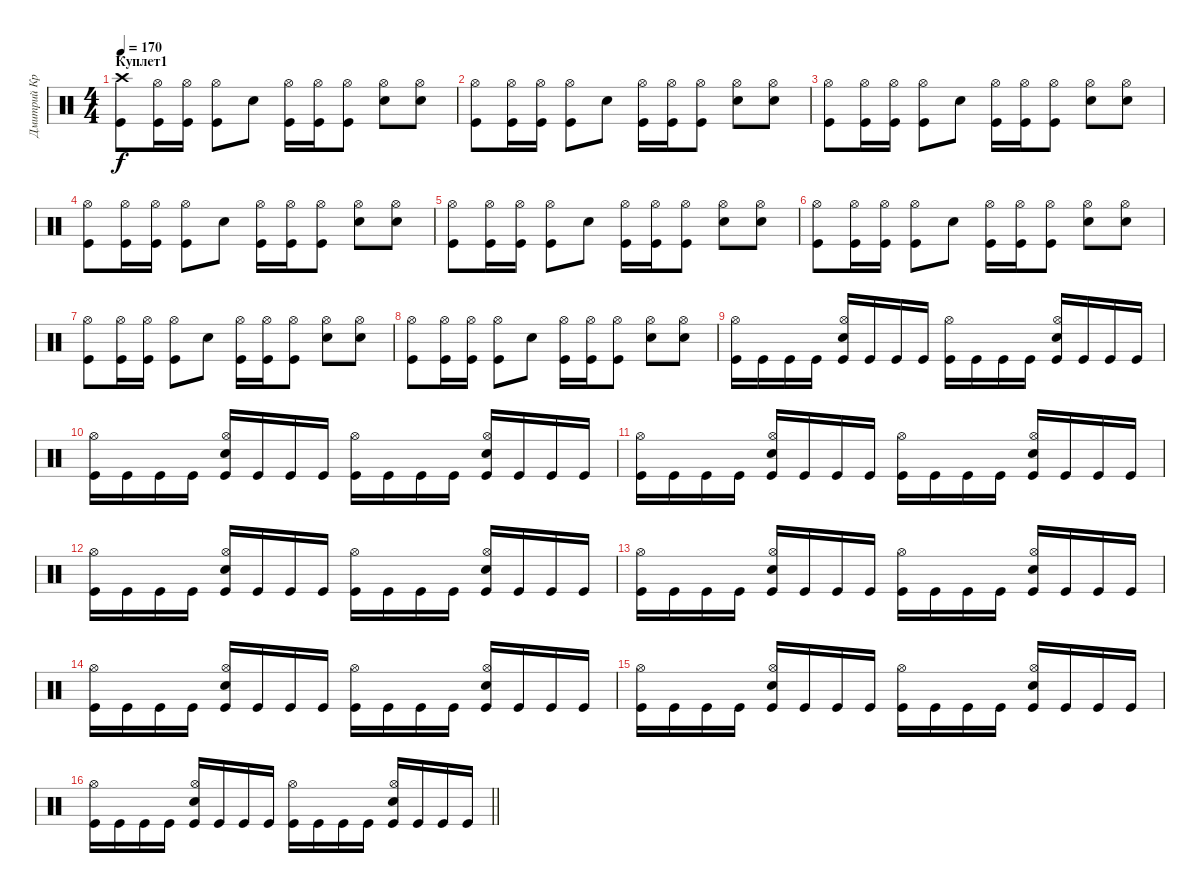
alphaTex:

\track ("Дмитрий Кривенков" "Дмитрий Кр") {instrument percussion}
\staff {score}
\articulation defaults
\ts (4 4)
\section ("" "Куплет1")
\tempo 170
\clef neutral
\ks c
("Crash high (hit)" "Kick (hit)").8{dy f} ("Hi-Hat (open)" "Kick (hit)").16 ("Hi-Hat (open)" "Kick (hit)").16 ("Hi-Hat (open)" "Kick (hit)").8 "Snare (hit) 2".8 ("Hi-Hat (open)" "Kick (hit)").16 ("Hi-Hat (open)" "Kick (hit)").16 ("Hi-Hat (open)" "Kick (hit)").8 ("Hi-Hat (open)" "Snare (hit) 2").8 ("Hi-Hat (open)" "Snare (hit) 2").8 |
("Hi-Hat (open)" "Kick (hit)").8 ("Hi-Hat (open)" "Kick (hit)").16 ("Hi-Hat (open)" "Kick (hit)").16 ("Hi-Hat (open)" "Kick (hit)").8 "Snare (hit) 2".8 ("Hi-Hat (open)" "Kick (hit)").16 ("Hi-Hat (open)" "Kick (hit)").16 ("Hi-Hat (open)" "Kick (hit)").8 ("Hi-Hat (open)" "Snare (hit) 2").8 ("Hi-Hat (open)" "Snare (hit) 2").8 |
("Hi-Hat (open)" "Kick (hit)").8 ("Hi-Hat (open)" "Kick (hit)").16 ("Hi-Hat (open)" "Kick (hit)").16 ("Hi-Hat (open)" "Kick (hit)").8 "Snare (hit) 2".8 ("Hi-Hat (open)" "Kick (hit)").16 ("Hi-Hat (open)" "Kick (hit)").16 ("Hi-Hat (open)" "Kick (hit)").8 ("Hi-Hat (open)" "Snare (hit) 2").8 ("Hi-Hat (open)" "Snare (hit) 2").8 |
("Hi-Hat (open)" "Kick (hit)").8 ("Hi-Hat (open)" "Kick (hit)").16 ("Hi-Hat (open)" "Kick (hit)").16 ("Hi-Hat (open)" "Kick (hit)").8 "Snare (hit) 2".8 ("Hi-Hat (open)" "Kick (hit)").16 ("Hi-Hat (open)" "Kick (hit)").16 ("Hi-Hat (open)" "Kick (hit)").8 ("Hi-Hat (open)" "Snare (hit) 2").8 ("Hi-Hat (open)" "Snare (hit) 2").8 |
("Hi-Hat (open)" "Kick (hit)").8 ("Hi-Hat (open)" "Kick (hit)").16 ("Hi-Hat (open)" "Kick (hit)").16 ("Hi-Hat (open)" "Kick (hit)").8 "Snare (hit) 2".8 ("Hi-Hat (open)" "Kick (hit)").16 ("Hi-Hat (open)" "Kick (hit)").16 ("Hi-Hat (open)" "Kick (hit)").8 ("Hi-Hat (open)" "Snare (hit) 2").8 ("Hi-Hat (open)" "Snare (hit) 2").8 |
("Hi-Hat (open)" "Kick (hit)").8 ("Hi-Hat (open)" "Kick (hit)").16 ("Hi-Hat (open)" "Kick (hit)").16 ("Hi-Hat (open)" "Kick (hit)").8 "Snare (hit) 2".8 ("Hi-Hat (open)" "Kick (hit)").16 ("Hi-Hat (open)" "Kick (hit)").16 ("Hi-Hat (open)" "Kick (hit)").8 ("Hi-Hat (open)" "Snare (hit) 2").8 ("Hi-Hat (open)" "Snare (hit) 2").8 |
("Hi-Hat (open)" "Kick (hit)").8 ("Hi-Hat (open)" "Kick (hit)").16 ("Hi-Hat (open)" "Kick (hit)").16 ("Hi-Hat (open)" "Kick (hit)").8 "Snare (hit) 2".8 ("Hi-Hat (open)" "Kick (hit)").16 ("Hi-Hat (open)" "Kick (hit)").16 ("Hi-Hat (open)" "Kick (hit)").8 ("Hi-Hat (open)" "Snare (hit) 2").8 ("Hi-Hat (open)" "Snare (hit) 2").8 |
("Hi-Hat (open)" "Kick (hit)").8 ("Hi-Hat (open)" "Kick (hit)").16 ("Hi-Hat (open)" "Kick (hit)").16 ("Hi-Hat (open)" "Kick (hit)").8 "Snare (hit) 2".8 ("Hi-Hat (open)" "Kick (hit)").16 ("Hi-Hat (open)" "Kick (hit)").16 ("Hi-Hat (open)" "Kick (hit)").8 ("Hi-Hat (open)" "Snare (hit) 2").8 ("Hi-Hat (open)" "Snare (hit) 2").8 |
("Hi-Hat (open)" "Kick (hit)").16 "Kick (hit)".16 "Kick (hit)".16 "Kick (hit)".16 ("Hi-Hat (open)" "Snare (hit) 2" "Kick (hit)").16 "Kick (hit)".16 "Kick (hit)".16 "Kick (hit)".16 ("Hi-Hat (open)" "Kick (hit)").16 "Kick (hit)".16 "Kick (hit)".16 "Kick (hit)".16 ("Hi-Hat (open)" "Snare (hit) 2" "Kick (hit)").16 "Kick (hit)".16 "Kick (hit)".16 "Kick (hit)".16 |
("Hi-Hat (open)" "Kick (hit)").16 "Kick (hit)".16 "Kick (hit)".16 "Kick (hit)".16 ("Hi-Hat (open)" "Snare (hit) 2" "Kick (hit)").16 "Kick (hit)".16 "Kick (hit)".16 "Kick (hit)".16 ("Hi-Hat (open)" "Kick (hit)").16 "Kick (hit)".16 "Kick (hit)".16 "Kick (hit)".16 ("Hi-Hat (open)" "Snare (hit) 2" "Kick (hit)").16 "Kick (hit)".16 "Kick (hit)".16 "Kick (hit)".16 |
("Hi-Hat (open)" "Kick (hit)").16 "Kick (hit)".16 "Kick (hit)".16 "Kick (hit)".16 ("Hi-Hat (open)" "Snare (hit) 2" "Kick (hit)").16 "Kick (hit)".16 "Kick (hit)".16 "Kick (hit)".16 ("Hi-Hat (open)" "Kick (hit)").16 "Kick (hit)".16 "Kick (hit)".16 "Kick (hit)".16 ("Hi-Hat (open)" "Snare (hit) 2" "Kick (hit)").16 "Kick (hit)".16 "Kick (hit)".16 "Kick (hit)".16 |
("Hi-Hat (open)" "Kick (hit)").16 "Kick (hit)".16 "Kick (hit)".16 "Kick (hit)".16 ("Hi-Hat (open)" "Snare (hit) 2" "Kick (hit)").16 "Kick (hit)".16 "Kick (hit)".16 "Kick (hit)".16 ("Hi-Hat (open)" "Kick (hit)").16 "Kick (hit)".16 "Kick (hit)".16 "Kick (hit)".16 ("Hi-Hat (open)" "Snare (hit) 2" "Kick (hit)").16 "Kick (hit)".16 "Kick (hit)".16 "Kick (hit)".16 |
("Hi-Hat (open)" "Kick (hit)").16 "Kick (hit)".16 "Kick (hit)".16 "Kick (hit)".16 ("Hi-Hat (open)" "Snare (hit) 2" "Kick (hit)").16 "Kick (hit)".16 "Kick (hit)".16 "Kick (hit)".16 ("Hi-Hat (open)" "Kick (hit)").16 "Kick (hit)".16 "Kick (hit)".16 "Kick (hit)".16 ("Hi-Hat (open)" "Snare (hit) 2" "Kick (hit)").16 "Kick (hit)".16 "Kick (hit)".16 "Kick (hit)".16 |
("Hi-Hat (open)" "Kick (hit)").16 "Kick (hit)".16 "Kick (hit)".16 "Kick (hit)".16 ("Hi-Hat (open)" "Snare (hit) 2" "Kick (hit)").16 "Kick (hit)".16 "Kick (hit)".16 "Kick (hit)".16 ("Hi-Hat (open)" "Kick (hit)").16 "Kick (hit)".16 "Kick (hit)".16 "Kick (hit)".16 ("Hi-Hat (open)" "Snare (hit) 2" "Kick (hit)").16 "Kick (hit)".16 "Kick (hit)".16 "Kick (hit)".16 |
("Hi-Hat (open)" "Kick (hit)").16 "Kick (hit)".16 "Kick (hit)".16 "Kick (hit)".16 ("Hi-Hat (open)" "Snare (hit) 2" "Kick (hit)").16 "Kick (hit)".16 "Kick (hit)".16 "Kick (hit)".16 ("Hi-Hat (open)" "Kick (hit)").16 "Kick (hit)".16 "Kick (hit)".16 "Kick (hit)".16 ("Hi-Hat (open)" "Snare (hit) 2" "Kick (hit)").16 "Kick (hit)".16 "Kick (hit)".16 "Kick (hit)".16 |
\barLineRight lightlight
("Hi-Hat (open)" "Kick (hit)").16 "Kick (hit)".16 "Kick (hit)".16 "Kick (hit)".16 ("Hi-Hat (open)" "Snare (hit) 2" "Kick (hit)").16 "Kick (hit)".16 "Kick (hit)".16 "Kick (hit)".16 ("Hi-Hat (open)" "Kick (hit)").16 "Kick (hit)".16 "Kick (hit)".16 "Kick (hit)".16 ("Hi-Hat (open)" "Snare (hit) 2" "Kick (hit)").16 "Kick (hit)".16 "Kick (hit)".16 "Kick (hit)".16
